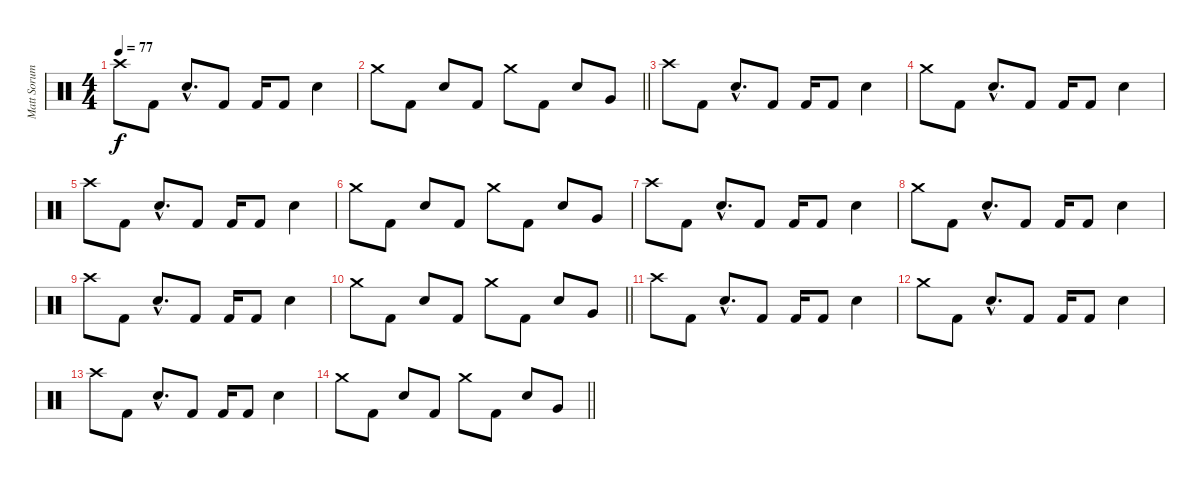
\track ("Matt Sorum (Drums)" "Matt Sorum") {instrument percussion}
\staff {score}
\articulation defaults
\ts (4 4)
\tempo 77
\clef neutral
\ks c "Crash high (hit)".8{dy f} "Kick (hit) 2".8 "Electric Snare (hit)"{hac}.8{d} "Kick (hit) 2".8 "Kick (hit) 2".16 "Kick (hit) 2".8 "Electric Snare (hit)".4
|
\barLineRight lightlight "Crash medium (hit)".8 "Kick (hit) 2".8 "Electric Snare (hit)".8 "Kick (hit) 2".8 "Crash medium (hit)".8 "Kick (hit) 2".8 "Electric Snare (hit)".8 "Very Low Tom (hit)".8
|
"Crash high (hit)".8 "Kick (hit) 2".8 "Electric Snare (hit)"{hac}.8{d} "Kick (hit) 2".8 "Kick (hit) 2".16 "Kick (hit) 2".8 "Electric Snare (hit)".4 |
"Crash medium (hit)".8 "Kick (hit) 2".8 "Electric Snare (hit)"{hac}.8{d} "Kick (hit) 2".8 "Kick (hit) 2".16 "Kick (hit) 2".8 "Electric Snare (hit)".4 |
"Crash high (hit)".8 "Kick (hit) 2".8 "Electric Snare (hit)"{hac}.8{d} "Kick (hit) 2".8 "Kick (hit) 2".16 "Kick (hit) 2".8 "Electric Snare (hit)".4 |
"Crash medium (hit)".8 "Kick (hit) 2".8 "Electric Snare (hit)".8 "Kick (hit) 2".8 "Crash medium (hit)".8 "Kick (hit) 2".8 "Electric Snare (hit)".8 "Very Low Tom (hit)".8 |
"Crash high (hit)".8 "Kick (hit) 2".8 "Electric Snare (hit)"{hac}.8{d} "Kick (hit) 2".8 "Kick (hit) 2".16 "Kick (hit) 2".8 "Electric Snare (hit)".4 |
"Crash medium (hit)".8 "Kick (hit) 2".8 "Electric Snare (hit)"{hac}.8{d} "Kick (hit) 2".8 "Kick (hit) 2".16 "Kick (hit) 2".8 "Electric Snare (hit)".4 |
"Crash high (hit)".8 "Kick (hit) 2".8 "Electric Snare (hit)"{hac}.8{d} "Kick (hit) 2".8 "Kick (hit) 2".16 "Kick (hit) 2".8 "Electric Snare (hit)".4 |
\barLineRight lightlight "Crash medium (hit)".8 "Kick (hit) 2".8 "Electric Snare (hit)".8 "Kick (hit) 2".8 "Crash medium (hit)".8 "Kick (hit) 2".8 "Electric Snare (hit)".8 "Very Low Tom (hit)".8
|
"Crash high (hit)".8 "Kick (hit) 2".8 "Electric Snare (hit)"{hac}.8{d} "Kick (hit) 2".8 "Kick (hit) 2".16 "Kick (hit) 2".8 "Electric Snare (hit)".4 |
"Crash medium (hit)".8 "Kick (hit) 2".8 "Electric Snare (hit)"{hac}.8{d} "Kick (hit) 2".8 "Kick (hit) 2".16 "Kick (hit) 2".8 "Electric Snare (hit)".4 |
"Crash high (hit)".8 "Kick (hit) 2".8 "Electric Snare (hit)"{hac}.8{d} "Kick (hit) 2".8 "Kick (hit) 2".16 "Kick (hit) 2".8 "Electric Snare (hit)".4 |
\barLineRight lightlight "Crash medium (hit)".8 "Kick (hit) 2".8 "Electric Snare (hit)".8 "Kick (hit) 2".8 "Crash medium (hit)".8 "Kick (hit) 2".8 "Electric Snare (hit)".8 "Very Low Tom (hit)".8
